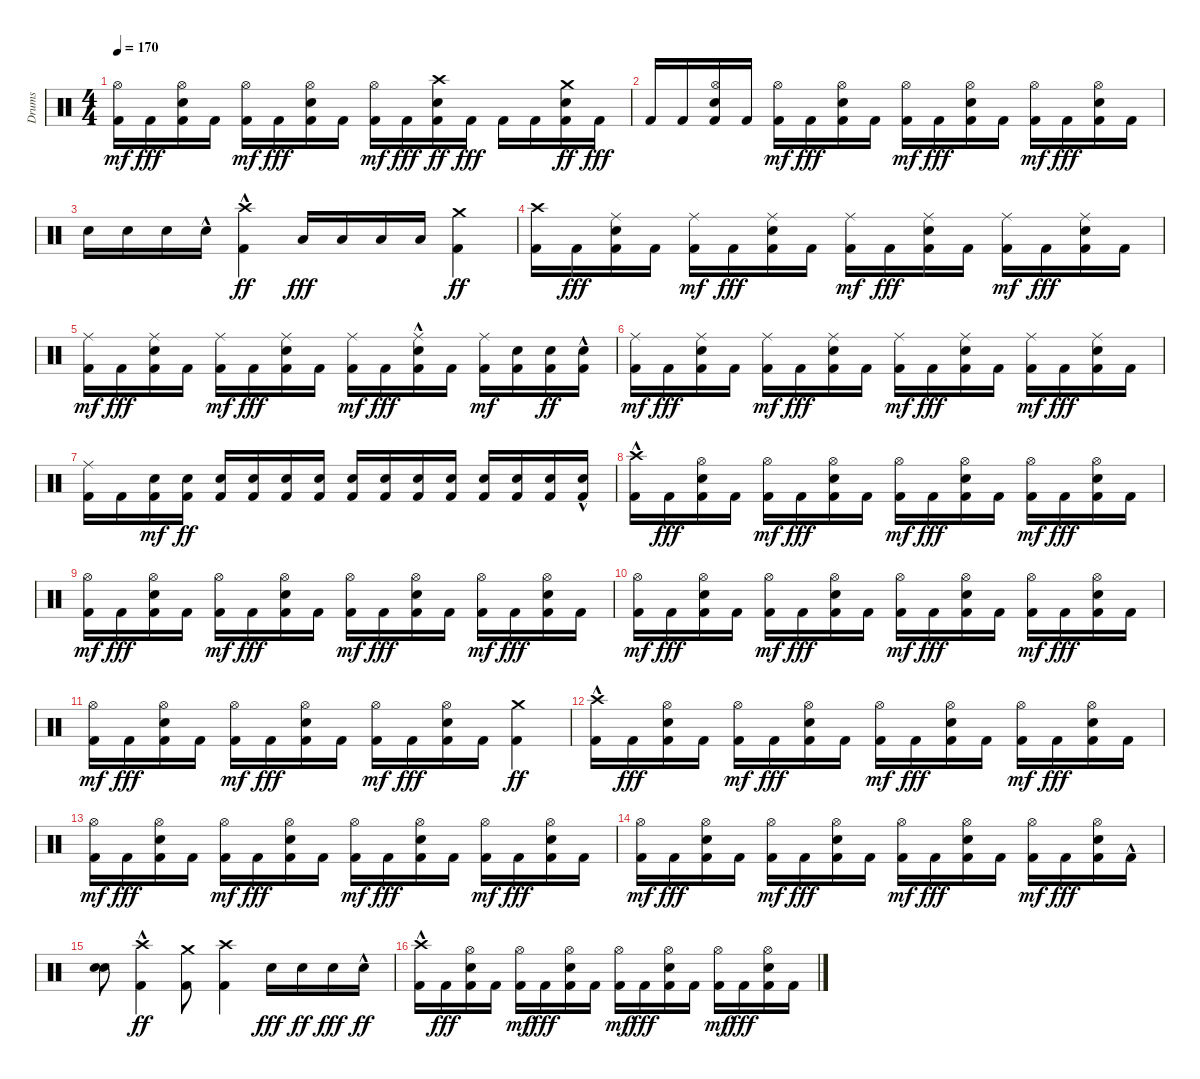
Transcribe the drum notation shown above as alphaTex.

\track ("Drums" "Drums") {instrument percussion}
\staff {score}
\articulation defaults
\ts (4 4)
\tempo 170
\clef neutral
\ks c
("Kick (hit) 2" "Hi-Hat (open)").16{dy mf} "Kick (hit) 2".16{dy fff} ("Kick (hit) 2" "Snare (hit) 2" "Hi-Hat (open)").16 "Kick (hit) 2".16 ("Kick (hit) 2" "Hi-Hat (open)").16{dy mf} "Kick (hit) 2".16{dy fff} ("Kick (hit) 2" "Snare (hit) 2" "Hi-Hat (open)").16 "Kick (hit) 2".16 ("Kick (hit) 2" "Hi-Hat (open)").16{dy mf} "Kick (hit) 2".16{dy fff} ("Kick (hit) 2" "Snare (hit) 2" "Crash high (hit)").16{dy ff} "Kick (hit) 2".16{dy fff} "Kick (hit) 2".16 "Kick (hit) 2".16 ("Kick (hit) 2" "Snare (hit) 2" "Crash medium (hit)").16{dy ff} "Kick (hit) 2".16{dy fff} |
"Kick (hit) 2".16 "Kick (hit) 2".16 ("Kick (hit) 2" "Snare (hit) 2" "Hi-Hat (open)").16 "Kick (hit) 2".16 ("Kick (hit) 2" "Hi-Hat (open)").16{dy mf} "Kick (hit) 2".16{dy fff} ("Kick (hit) 2" "Snare (hit) 2" "Hi-Hat (open)").16 "Kick (hit) 2".16 ("Kick (hit) 2" "Hi-Hat (open)").16{dy mf} "Kick (hit) 2".16{dy fff} ("Kick (hit) 2" "Snare (hit) 2" "Hi-Hat (open)").16 "Kick (hit) 2".16 ("Kick (hit) 2" "Hi-Hat (open)").16{dy mf} "Kick (hit) 2".16{dy fff} ("Kick (hit) 2" "Snare (hit) 2" "Hi-Hat (open)").16 "Kick (hit) 2".16 |
"Snare (hit) 2".16 "Snare (hit) 2".16 "Snare (hit) 2".16 "Snare (hit) 2"{hac}.16 ("Kick (hit) 2" "Crash high (hit)"{hac}).4{dy ff} "Low Tom (hit)".16{dy fff} "Low Tom (hit)".16 "Low Tom (hit)".16 "Low Tom (hit)".16 ("Kick (hit) 2" "Crash medium (hit)").4{dy ff} |
("Kick (hit) 2" "Crash high (hit)").16 "Kick (hit) 2".16{dy fff} ("Kick (hit) 2" "Snare (hit) 2" "Ride (middle)").16 "Kick (hit) 2".16 ("Kick (hit) 2" "Ride (middle)").16{dy mf} "Kick (hit) 2".16{dy fff} ("Kick (hit) 2" "Snare (hit) 2" "Ride (middle)").16 "Kick (hit) 2".16 ("Kick (hit) 2" "Ride (middle)").16{dy mf} "Kick (hit) 2".16{dy fff} ("Kick (hit) 2" "Snare (hit) 2" "Ride (middle)").16 "Kick (hit) 2".16 ("Kick (hit) 2" "Ride (middle)").16{dy mf} "Kick (hit) 2".16{dy fff} ("Kick (hit) 2" "Snare (hit) 2" "Ride (middle)").16 "Kick (hit) 2".16 |
("Kick (hit) 2" "Ride (middle)").16{dy mf} "Kick (hit) 2".16{dy fff} ("Kick (hit) 2" "Snare (hit) 2" "Ride (middle)").16 "Kick (hit) 2".16 ("Kick (hit) 2" "Ride (middle)").16{dy mf} "Kick (hit) 2".16{dy fff} ("Kick (hit) 2" "Snare (hit) 2" "Ride (middle)").16 "Kick (hit) 2".16 ("Kick (hit) 2" "Ride (middle)").16{dy mf} "Kick (hit) 2".16{dy fff} ("Kick (hit) 2" "Snare (hit) 2"{hac} "Ride (middle)").16 "Kick (hit) 2".16 ("Kick (hit) 2" "Ride (middle)").16{dy mf} ("Kick (hit) 2" "Snare (hit) 2").16 ("Kick (hit) 2" "Snare (hit) 2").16{dy ff} ("Kick (hit) 2" "Snare (hit) 2"{hac}).16 |
("Kick (hit) 2" "Ride (middle)").16{dy mf} "Kick (hit) 2".16{dy fff} ("Kick (hit) 2" "Snare (hit) 2" "Ride (middle)").16 "Kick (hit) 2".16 ("Kick (hit) 2" "Ride (middle)").16{dy mf} "Kick (hit) 2".16{dy fff} ("Kick (hit) 2" "Snare (hit) 2" "Ride (middle)").16 "Kick (hit) 2".16 ("Kick (hit) 2" "Ride (middle)").16{dy mf} "Kick (hit) 2".16{dy fff} ("Kick (hit) 2" "Snare (hit) 2" "Ride (middle)").16 "Kick (hit) 2".16 ("Kick (hit) 2" "Ride (middle)").16{dy mf} "Kick (hit) 2".16{dy fff} ("Kick (hit) 2" "Snare (hit) 2" "Ride (middle)").16 "Kick (hit) 2".16 |
("Kick (hit) 2" "Ride (middle)").16 "Kick (hit) 2".16 ("Kick (hit) 2" "Snare (hit) 2").16{dy mf} ("Kick (hit) 2" "Snare (hit) 2").16{dy ff} ("Kick (hit) 2" "Snare (hit) 2").16 ("Kick (hit) 2" "Snare (hit) 2").16 ("Kick (hit) 2" "Snare (hit) 2").16 ("Kick (hit) 2" "Snare (hit) 2").16 ("Kick (hit) 2" "Snare (hit) 2").16 ("Kick (hit) 2" "Snare (hit) 2").16 ("Kick (hit) 2" "Snare (hit) 2").16 ("Kick (hit) 2" "Snare (hit) 2").16 ("Kick (hit) 2" "Snare (hit) 2").16 ("Kick (hit) 2" "Snare (hit) 2").16 ("Kick (hit) 2" "Snare (hit) 2").16 ("Kick (hit) 2" "Snare (hit) 2"{hac}).16 |
("Kick (hit) 2" "Crash high (hit)"{hac}).16 "Kick (hit) 2".16{dy fff} ("Kick (hit) 2" "Snare (hit) 2" "Hi-Hat (open)").16 "Kick (hit) 2".16 ("Kick (hit) 2" "Hi-Hat (open)").16{dy mf} "Kick (hit) 2".16{dy fff} ("Kick (hit) 2" "Snare (hit) 2" "Hi-Hat (open)").16 "Kick (hit) 2".16 ("Kick (hit) 2" "Hi-Hat (open)").16{dy mf} "Kick (hit) 2".16{dy fff} ("Kick (hit) 2" "Snare (hit) 2" "Hi-Hat (open)").16 "Kick (hit) 2".16 ("Kick (hit) 2" "Hi-Hat (open)").16{dy mf} "Kick (hit) 2".16{dy fff} ("Kick (hit) 2" "Snare (hit) 2" "Hi-Hat (open)").16 "Kick (hit) 2".16 |
("Kick (hit) 2" "Hi-Hat (open)").16{dy mf} "Kick (hit) 2".16{dy fff} ("Kick (hit) 2" "Snare (hit) 2" "Hi-Hat (open)").16 "Kick (hit) 2".16 ("Kick (hit) 2" "Hi-Hat (open)").16{dy mf} "Kick (hit) 2".16{dy fff} ("Kick (hit) 2" "Snare (hit) 2" "Hi-Hat (open)").16 "Kick (hit) 2".16 ("Kick (hit) 2" "Hi-Hat (open)").16{dy mf} "Kick (hit) 2".16{dy fff} ("Kick (hit) 2" "Snare (hit) 2" "Hi-Hat (open)").16 "Kick (hit) 2".16 ("Kick (hit) 2" "Hi-Hat (open)").16{dy mf} "Kick (hit) 2".16{dy fff} ("Kick (hit) 2" "Snare (hit) 2" "Hi-Hat (open)").16 "Kick (hit) 2".16 |
("Kick (hit) 2" "Hi-Hat (open)").16{dy mf} "Kick (hit) 2".16{dy fff} ("Kick (hit) 2" "Snare (hit) 2" "Hi-Hat (open)").16 "Kick (hit) 2".16 ("Kick (hit) 2" "Hi-Hat (open)").16{dy mf} "Kick (hit) 2".16{dy fff} ("Kick (hit) 2" "Snare (hit) 2" "Hi-Hat (open)").16 "Kick (hit) 2".16 ("Kick (hit) 2" "Hi-Hat (open)").16{dy mf} "Kick (hit) 2".16{dy fff} ("Kick (hit) 2" "Snare (hit) 2" "Hi-Hat (open)").16 "Kick (hit) 2".16 ("Kick (hit) 2" "Hi-Hat (open)").16{dy mf} "Kick (hit) 2".16{dy fff} ("Kick (hit) 2" "Snare (hit) 2" "Hi-Hat (open)").16 "Kick (hit) 2".16 |
("Kick (hit) 2" "Hi-Hat (open)").16{dy mf} "Kick (hit) 2".16{dy fff} ("Kick (hit) 2" "Snare (hit) 2" "Hi-Hat (open)").16 "Kick (hit) 2".16 ("Kick (hit) 2" "Hi-Hat (open)").16{dy mf} "Kick (hit) 2".16{dy fff} ("Kick (hit) 2" "Snare (hit) 2" "Hi-Hat (open)").16 "Kick (hit) 2".16 ("Kick (hit) 2" "Hi-Hat (open)").16{dy mf} "Kick (hit) 2".16{dy fff} ("Kick (hit) 2" "Snare (hit) 2" "Hi-Hat (open)").16 "Kick (hit) 2".16 ("Kick (hit) 2" "Crash medium (hit)").4{dy ff} |
("Kick (hit) 2" "Crash high (hit)"{hac}).16 "Kick (hit) 2".16{dy fff} ("Kick (hit) 2" "Snare (hit) 2" "Hi-Hat (open)").16 "Kick (hit) 2".16 ("Kick (hit) 2" "Hi-Hat (open)").16{dy mf} "Kick (hit) 2".16{dy fff} ("Kick (hit) 2" "Snare (hit) 2" "Hi-Hat (open)").16 "Kick (hit) 2".16 ("Kick (hit) 2" "Hi-Hat (open)").16{dy mf} "Kick (hit) 2".16{dy fff} ("Kick (hit) 2" "Snare (hit) 2" "Hi-Hat (open)").16 "Kick (hit) 2".16 ("Kick (hit) 2" "Hi-Hat (open)").16{dy mf} "Kick (hit) 2".16{dy fff} ("Kick (hit) 2" "Snare (hit) 2" "Hi-Hat (open)").16 "Kick (hit) 2".16 |
("Kick (hit) 2" "Hi-Hat (open)").16{dy mf} "Kick (hit) 2".16{dy fff} ("Kick (hit) 2" "Snare (hit) 2" "Hi-Hat (open)").16 "Kick (hit) 2".16 ("Kick (hit) 2" "Hi-Hat (open)").16{dy mf} "Kick (hit) 2".16{dy fff} ("Kick (hit) 2" "Snare (hit) 2" "Hi-Hat (open)").16 "Kick (hit) 2".16 ("Kick (hit) 2" "Hi-Hat (open)").16{dy mf} "Kick (hit) 2".16{dy fff} ("Kick (hit) 2" "Snare (hit) 2" "Hi-Hat (open)").16 "Kick (hit) 2".16 ("Kick (hit) 2" "Hi-Hat (open)").16{dy mf} "Kick (hit) 2".16{dy fff} ("Kick (hit) 2" "Snare (hit) 2" "Hi-Hat (open)").16 "Kick (hit) 2".16 |
("Kick (hit) 2" "Hi-Hat (open)").16{dy mf} "Kick (hit) 2".16{dy fff} ("Kick (hit) 2" "Snare (hit) 2" "Hi-Hat (open)").16 "Kick (hit) 2".16 ("Kick (hit) 2" "Hi-Hat (open)").16{dy mf} "Kick (hit) 2".16{dy fff} ("Kick (hit) 2" "Snare (hit) 2" "Hi-Hat (open)").16 "Kick (hit) 2".16 ("Kick (hit) 2" "Hi-Hat (open)").16{dy mf} "Kick (hit) 2".16{dy fff} ("Kick (hit) 2" "Snare (hit) 2" "Hi-Hat (open)").16 "Kick (hit) 2".16 ("Kick (hit) 2" "Hi-Hat (open)").16{dy mf} "Kick (hit) 2".16{dy fff} ("Kick (hit) 2" "Snare (hit) 2" "Hi-Hat (open)").16 "Kick (hit) 2"{hac}.16 |
("Snare (hit) 2" "Snare (hit) 2").8 ("Kick (hit) 2" "Crash high (hit)"{hac}).4{dy ff} ("Kick (hit) 2" "Crash medium (hit)").8 ("Kick (hit) 2" "Crash high (hit)").4 "Snare (hit) 2".16{dy fff} "Snare (hit) 2".16{dy ff} "Snare (hit) 2".16{dy fff} "Snare (hit) 2"{hac}.16{dy ff} |
("Kick (hit) 2" "Crash high (hit)"{hac}).16 "Kick (hit) 2".16{dy fff} ("Kick (hit) 2" "Snare (hit) 2" "Hi-Hat (open)").16 "Kick (hit) 2".16 ("Kick (hit) 2" "Hi-Hat (open)").16{dy mf} "Kick (hit) 2".16{dy fff} ("Kick (hit) 2" "Snare (hit) 2" "Hi-Hat (open)").16 "Kick (hit) 2".16 ("Kick (hit) 2" "Hi-Hat (open)").16{dy mf} "Kick (hit) 2".16{dy fff} ("Kick (hit) 2" "Snare (hit) 2" "Hi-Hat (open)").16 "Kick (hit) 2".16 ("Kick (hit) 2" "Hi-Hat (open)").16{dy mf} "Kick (hit) 2".16{dy fff} ("Kick (hit) 2" "Snare (hit) 2" "Hi-Hat (open)").16 "Kick (hit) 2".16
